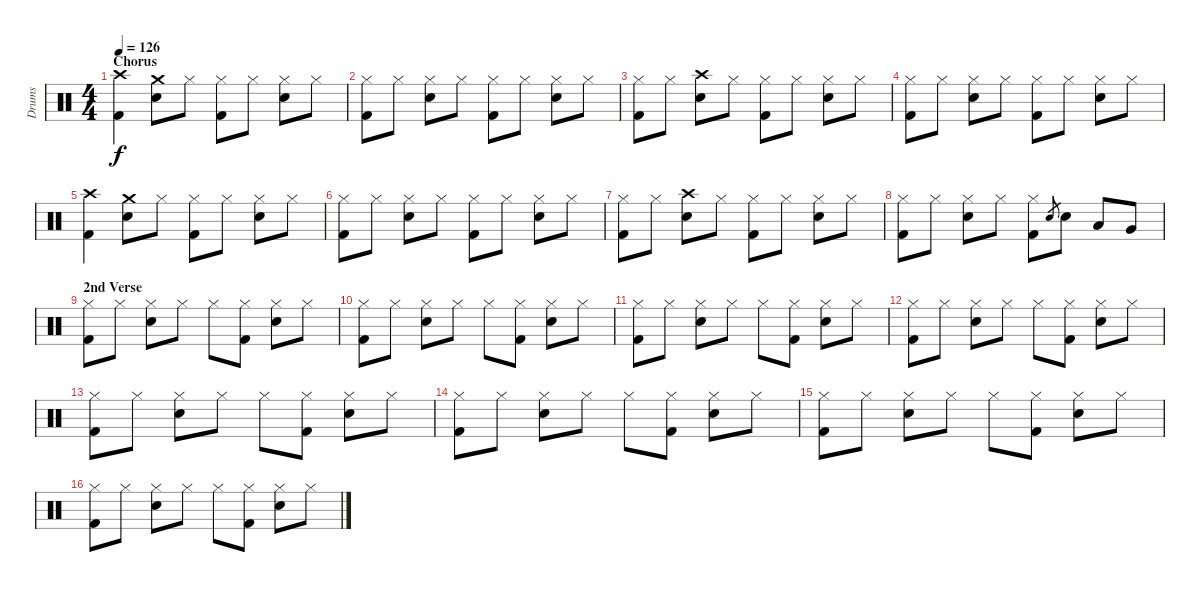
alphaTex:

\track ("Drums" "Drums") {instrument percussion}
\staff {score}
\articulation defaults
\ts (4 4)
\section ("" "Chorus")
\tempo 126
\clef neutral
\ks c
("Crash high (hit)" "Kick (hit) 2").4{dy f} ("Crash medium (hit)" "Snare (hit) 2").8 "Hi-Hat (closed)".8 ("Hi-Hat (closed)" "Kick (hit) 2").8 "Hi-Hat (closed)".8 ("Hi-Hat (closed)" "Snare (hit) 2").8 "Hi-Hat (closed)".8 |
("Hi-Hat (closed)" "Kick (hit) 2").8 "Hi-Hat (closed)".8 ("Hi-Hat (closed)" "Snare (hit) 2").8 "Hi-Hat (closed)".8 ("Hi-Hat (closed)" "Kick (hit) 2").8 "Hi-Hat (closed)".8 ("Hi-Hat (closed)" "Snare (hit) 2").8 "Hi-Hat (closed)".8 |
("Hi-Hat (closed)" "Kick (hit) 2").8 "Hi-Hat (closed)".8 ("Crash high (hit)" "Snare (hit) 2").8 "Hi-Hat (closed)".8 ("Hi-Hat (closed)" "Kick (hit) 2").8 "Hi-Hat (closed)".8 ("Hi-Hat (closed)" "Snare (hit) 2").8 "Hi-Hat (closed)".8 |
("Hi-Hat (closed)" "Kick (hit) 2").8 "Hi-Hat (closed)".8 ("Hi-Hat (closed)" "Snare (hit) 2").8 "Hi-Hat (closed)".8 ("Hi-Hat (closed)" "Kick (hit) 2").8 "Hi-Hat (closed)".8 ("Hi-Hat (closed)" "Snare (hit) 2").8 "Hi-Hat (closed)".8 |
("Crash high (hit)" "Kick (hit) 2").4 ("Crash medium (hit)" "Snare (hit) 2").8 "Hi-Hat (closed)".8 ("Hi-Hat (closed)" "Kick (hit) 2").8 "Hi-Hat (closed)".8 ("Hi-Hat (closed)" "Snare (hit) 2").8 "Hi-Hat (closed)".8 |
("Hi-Hat (closed)" "Kick (hit) 2").8 "Hi-Hat (closed)".8 ("Hi-Hat (closed)" "Snare (hit) 2").8 "Hi-Hat (closed)".8 ("Hi-Hat (closed)" "Kick (hit) 2").8 "Hi-Hat (closed)".8 ("Hi-Hat (closed)" "Snare (hit) 2").8 "Hi-Hat (closed)".8 |
("Hi-Hat (closed)" "Kick (hit) 2").8 "Hi-Hat (closed)".8 ("Crash high (hit)" "Snare (hit) 2").8 "Hi-Hat (closed)".8 ("Hi-Hat (closed)" "Kick (hit) 2").8 "Hi-Hat (closed)".8 ("Hi-Hat (closed)" "Snare (hit) 2").8 "Hi-Hat (closed)".8 |
("Hi-Hat (closed)" "Kick (hit) 2").8 "Hi-Hat (closed)".8 ("Hi-Hat (closed)" "Snare (hit) 2").8 "Hi-Hat (closed)".8 ("Hi-Hat (closed)" "Kick (hit) 2").8 "Snare (hit) 2".8{gr} "Snare (hit) 2".8 "Low Tom (hit)".8 "Very Low Tom (hit)".8 |
\section ("" "2nd Verse")
("Hi-Hat (closed)" "Kick (hit) 2").8 "Hi-Hat (closed)".8 ("Hi-Hat (closed)" "Snare (hit) 2").8 "Hi-Hat (closed)".8 "Hi-Hat (closed)".8 ("Hi-Hat (closed)" "Kick (hit) 2").8 ("Hi-Hat (closed)" "Snare (hit) 2").8 "Hi-Hat (closed)".8 |
("Hi-Hat (closed)" "Kick (hit) 2").8 "Hi-Hat (closed)".8 ("Hi-Hat (closed)" "Snare (hit) 2").8 "Hi-Hat (closed)".8 "Hi-Hat (closed)".8 ("Hi-Hat (closed)" "Kick (hit) 2").8 ("Hi-Hat (closed)" "Snare (hit) 2").8 "Hi-Hat (closed)".8 |
("Hi-Hat (closed)" "Kick (hit) 2").8 "Hi-Hat (closed)".8 ("Hi-Hat (closed)" "Snare (hit) 2").8 "Hi-Hat (closed)".8 "Hi-Hat (closed)".8 ("Hi-Hat (closed)" "Kick (hit) 2").8 ("Hi-Hat (closed)" "Snare (hit) 2").8 "Hi-Hat (closed)".8 |
("Hi-Hat (closed)" "Kick (hit) 2").8 "Hi-Hat (closed)".8 ("Hi-Hat (closed)" "Snare (hit) 2").8 "Hi-Hat (closed)".8 "Hi-Hat (closed)".8 ("Hi-Hat (closed)" "Kick (hit) 2").8 ("Hi-Hat (closed)" "Snare (hit) 2").8 "Hi-Hat (closed)".8 |
("Hi-Hat (closed)" "Kick (hit) 2").8 "Hi-Hat (closed)".8 ("Hi-Hat (closed)" "Snare (hit) 2").8 "Hi-Hat (closed)".8 "Hi-Hat (closed)".8 ("Hi-Hat (closed)" "Kick (hit) 2").8 ("Hi-Hat (closed)" "Snare (hit) 2").8 "Hi-Hat (closed)".8 |
("Hi-Hat (closed)" "Kick (hit) 2").8 "Hi-Hat (closed)".8 ("Hi-Hat (closed)" "Snare (hit) 2").8 "Hi-Hat (closed)".8 "Hi-Hat (closed)".8 ("Hi-Hat (closed)" "Kick (hit) 2").8 ("Hi-Hat (closed)" "Snare (hit) 2").8 "Hi-Hat (closed)".8 |
("Hi-Hat (closed)" "Kick (hit) 2").8 "Hi-Hat (closed)".8 ("Hi-Hat (closed)" "Snare (hit) 2").8 "Hi-Hat (closed)".8 "Hi-Hat (closed)".8 ("Hi-Hat (closed)" "Kick (hit) 2").8 ("Hi-Hat (closed)" "Snare (hit) 2").8 "Hi-Hat (closed)".8 |
("Hi-Hat (closed)" "Kick (hit) 2").8 "Hi-Hat (closed)".8 ("Hi-Hat (closed)" "Snare (hit) 2").8 "Hi-Hat (closed)".8 "Hi-Hat (closed)".8 ("Hi-Hat (closed)" "Kick (hit) 2").8 ("Hi-Hat (closed)" "Snare (hit) 2").8 "Hi-Hat (closed)".8
